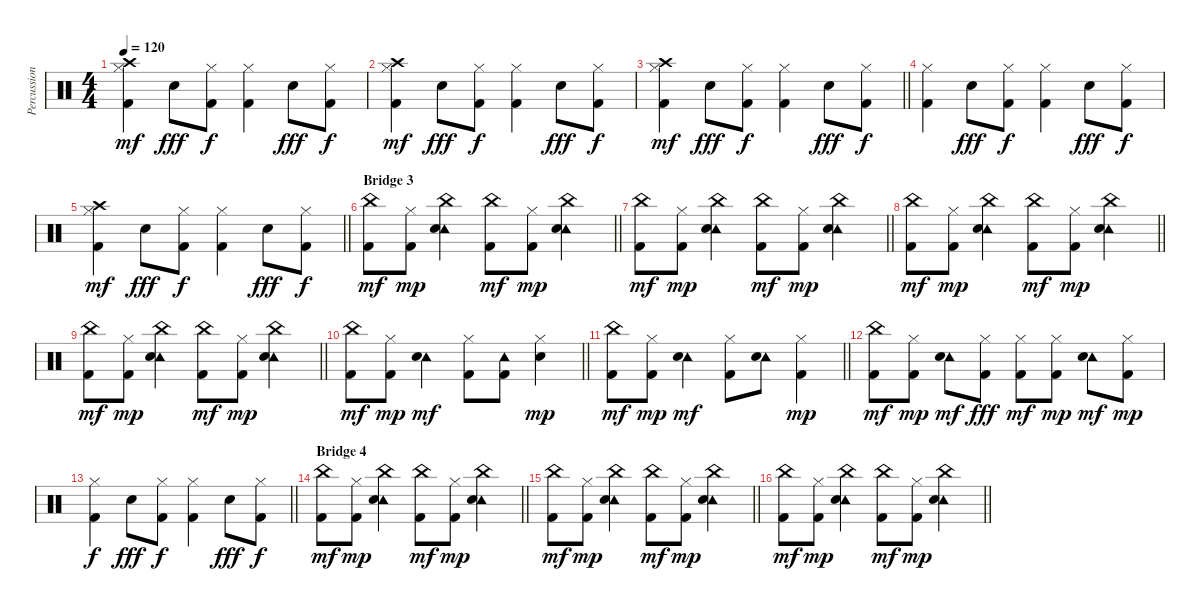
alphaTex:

\track ("Percussion" "Percussion") {instrument percussion}
\staff {score}
\articulation defaults
\ts (4 4)
\tempo 120
\clef neutral
\ks c
("Kick (hit) 2" "Hi-Hat (closed)" "Crash high (hit)").4{dy mf} "Snare (hit) 2".8{dy fff} ("Kick (hit) 2" "Hi-Hat (closed)").8{dy f} ("Kick (hit) 2" "Hi-Hat (closed)").4 "Snare (hit) 2".8{dy fff} ("Kick (hit) 2" "Hi-Hat (closed)").8{dy f} |
("Kick (hit) 2" "Hi-Hat (closed)" "Crash high (hit)").4{dy mf} "Snare (hit) 2".8{dy fff} ("Kick (hit) 2" "Hi-Hat (closed)").8{dy f} ("Kick (hit) 2" "Hi-Hat (closed)").4 "Snare (hit) 2".8{dy fff} ("Kick (hit) 2" "Hi-Hat (closed)").8{dy f} |
\barLineRight lightlight
("Kick (hit) 2" "Hi-Hat (closed)" "Crash high (hit)").4{dy mf} "Snare (hit) 2".8{dy fff} ("Kick (hit) 2" "Hi-Hat (closed)").8{dy f} ("Kick (hit) 2" "Hi-Hat (closed)").4 "Snare (hit) 2".8{dy fff} ("Kick (hit) 2" "Hi-Hat (closed)").8{dy f} |
("Kick (hit) 2" "Hi-Hat (closed)").4 "Snare (hit) 2".8{dy fff} ("Kick (hit) 2" "Hi-Hat (closed)").8{dy f} ("Kick (hit) 2" "Hi-Hat (closed)").4 "Snare (hit) 2".8{dy fff} ("Kick (hit) 2" "Hi-Hat (closed)").8{dy f} |
\barLineRight lightlight
("Kick (hit) 2" "Hi-Hat (closed)" "Crash high (hit)").4{dy mf} "Snare (hit) 2".8{dy fff} ("Kick (hit) 2" "Hi-Hat (closed)").8{dy f} ("Kick (hit) 2" "Hi-Hat (closed)").4 "Snare (hit) 2".8{dy fff} ("Kick (hit) 2" "Hi-Hat (closed)").8{dy f} |
\section ("" "Bridge 3")
\barLineRight lightlight
("China (hit)" "Kick (hit) 2").8{dy mf} ("Hi-Hat (closed)" "Kick (hit) 2").8{dy mp} ("Tambourine (hit)" "Snare (hit) 2" "China (hit)").4 ("China (hit)" "Kick (hit) 2").8{dy mf} ("Hi-Hat (closed)" "Kick (hit) 2").8{dy mp} ("Tambourine (hit)" "Snare (hit) 2" "China (hit)").4 |
\barLineRight lightlight
("China (hit)" "Kick (hit) 2").8{dy mf} ("Hi-Hat (closed)" "Kick (hit) 2").8{dy mp} ("Tambourine (hit)" "Snare (hit) 2" "China (hit)").4 ("China (hit)" "Kick (hit) 2").8{dy mf} ("Hi-Hat (closed)" "Kick (hit) 2").8{dy mp} ("Tambourine (hit)" "Snare (hit) 2" "China (hit)").4 |
\barLineRight lightlight
("China (hit)" "Kick (hit) 2").8{dy mf} ("Hi-Hat (closed)" "Kick (hit) 2").8{dy mp} ("Tambourine (hit)" "Snare (hit) 2" "China (hit)").4 ("China (hit)" "Kick (hit) 2").8{dy mf} ("Hi-Hat (closed)" "Kick (hit) 2").8{dy mp} ("Tambourine (hit)" "Snare (hit) 2" "China (hit)").4 |
\barLineRight lightlight
("China (hit)" "Kick (hit) 2").8{dy mf} ("Hi-Hat (closed)" "Kick (hit) 2").8{dy mp} ("Tambourine (hit)" "Snare (hit) 2" "China (hit)").4 ("China (hit)" "Kick (hit) 2").8{dy mf} ("Hi-Hat (closed)" "Kick (hit) 2").8{dy mp} ("Tambourine (hit)" "Snare (hit) 2" "China (hit)").4 |
\barLineRight lightlight
("China (hit)" "Kick (hit) 2").8{dy mf} ("Hi-Hat (closed)" "Kick (hit) 2").8{dy mp} ("Tambourine (hit)" "Snare (hit) 2").4{dy mf} ("Hi-Hat (closed)" "Kick (hit) 2").8 ("Tambourine (hit)" "Kick (hit) 2").8 ("Hi-Hat (closed)" "Snare (hit) 2").4{dy mp} |
\barLineRight lightlight
("China (hit)" "Kick (hit) 2").8{dy mf} ("Hi-Hat (closed)" "Kick (hit) 2").8{dy mp} ("Tambourine (hit)" "Snare (hit) 2").4{dy mf} ("Hi-Hat (closed)" "Kick (hit) 2").8 ("Tambourine (hit)" "Snare (hit) 2").8 ("Hi-Hat (closed)" "Kick (hit) 2").4{dy mp} |
("China (hit)" "Kick (hit) 2").8{dy mf} ("Hi-Hat (closed)" "Kick (hit) 2").8{dy mp} ("Tambourine (hit)" "Snare (hit) 2").8{dy mf} ("Hi-Hat (closed)" "Kick (hit) 2").8{dy fff} ("Hi-Hat (closed)" "Kick (hit) 2").8{dy mf} ("Hi-Hat (closed)" "Kick (hit) 2").8{dy mp} ("Tambourine (hit)" "Snare (hit) 2").8{dy mf} ("Hi-Hat (closed)" "Kick (hit) 2").8{dy mp} |
\barLineRight lightlight
("Kick (hit) 2" "Hi-Hat (closed)").4{dy f} "Snare (hit) 2".8{dy fff} ("Kick (hit) 2" "Hi-Hat (closed)").8{dy f} ("Kick (hit) 2" "Hi-Hat (closed)").4 "Snare (hit) 2".8{dy fff} ("Kick (hit) 2" "Hi-Hat (closed)").8{dy f} |
\section ("" "Bridge 4")
\barLineRight lightlight
("China (hit)" "Kick (hit) 2").8{dy mf} ("Hi-Hat (closed)" "Kick (hit) 2").8{dy mp} ("Tambourine (hit)" "Snare (hit) 2" "China (hit)").4 ("China (hit)" "Kick (hit) 2").8{dy mf} ("Hi-Hat (closed)" "Kick (hit) 2").8{dy mp} ("Tambourine (hit)" "Snare (hit) 2" "China (hit)").4 |
\barLineRight lightlight
("China (hit)" "Kick (hit) 2").8{dy mf} ("Hi-Hat (closed)" "Kick (hit) 2").8{dy mp} ("Tambourine (hit)" "Snare (hit) 2" "China (hit)").4 ("China (hit)" "Kick (hit) 2").8{dy mf} ("Hi-Hat (closed)" "Kick (hit) 2").8{dy mp} ("Tambourine (hit)" "Snare (hit) 2" "China (hit)").4 |
\barLineRight lightlight
("China (hit)" "Kick (hit) 2").8{dy mf} ("Hi-Hat (closed)" "Kick (hit) 2").8{dy mp} ("Tambourine (hit)" "Snare (hit) 2" "China (hit)").4 ("China (hit)" "Kick (hit) 2").8{dy mf} ("Hi-Hat (closed)" "Kick (hit) 2").8{dy mp} ("Tambourine (hit)" "Snare (hit) 2" "China (hit)").4
